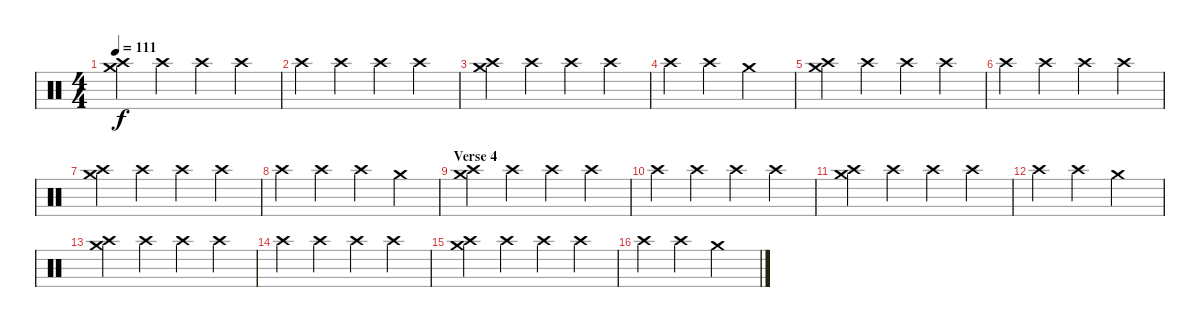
\track "" {instrument percussion}
\staff {score}
\articulation defaults
\ts (4 4)
\tempo 111
\clef neutral
\ks c
("Crash medium (hit)" "Crash high (hit)").4{dy f} "Crash high (hit)".4 "Crash high (hit)".4 "Crash high (hit)".4 |
"Crash high (hit)".4 "Crash high (hit)".4 "Crash high (hit)".4 "Crash high (hit)".4 |
("Crash medium (hit)" "Crash high (hit)").4 "Crash high (hit)".4 "Crash high (hit)".4 "Crash high (hit)".4 |
"Crash high (hit)".4 "Crash high (hit)".4 "Crash medium (hit)".2 |
("Crash medium (hit)" "Crash high (hit)").4 "Crash high (hit)".4 "Crash high (hit)".4 "Crash high (hit)".4 |
"Crash high (hit)".4 "Crash high (hit)".4 "Crash high (hit)".4 "Crash high (hit)".4 |
("Crash medium (hit)" "Crash high (hit)").4 "Crash high (hit)".4 "Crash high (hit)".4 "Crash high (hit)".4 |
"Crash high (hit)".4 "Crash high (hit)".4 "Crash high (hit)".4 "Crash medium (hit)".4 |
\section ("" "Verse 4")
("Crash medium (hit)" "Crash high (hit)").4 "Crash high (hit)".4 "Crash high (hit)".4 "Crash high (hit)".4 |
"Crash high (hit)".4 "Crash high (hit)".4 "Crash high (hit)".4 "Crash high (hit)".4 |
("Crash medium (hit)" "Crash high (hit)").4 "Crash high (hit)".4 "Crash high (hit)".4 "Crash high (hit)".4 |
"Crash high (hit)".4 "Crash high (hit)".4 "Crash medium (hit)".2 |
("Crash medium (hit)" "Crash high (hit)").4 "Crash high (hit)".4 "Crash high (hit)".4 "Crash high (hit)".4 |
"Crash high (hit)".4 "Crash high (hit)".4 "Crash high (hit)".4 "Crash high (hit)".4 |
("Crash medium (hit)" "Crash high (hit)").4 "Crash high (hit)".4 "Crash high (hit)".4 "Crash high (hit)".4 |
"Crash high (hit)".4 "Crash high (hit)".4 "Crash medium (hit)".2
